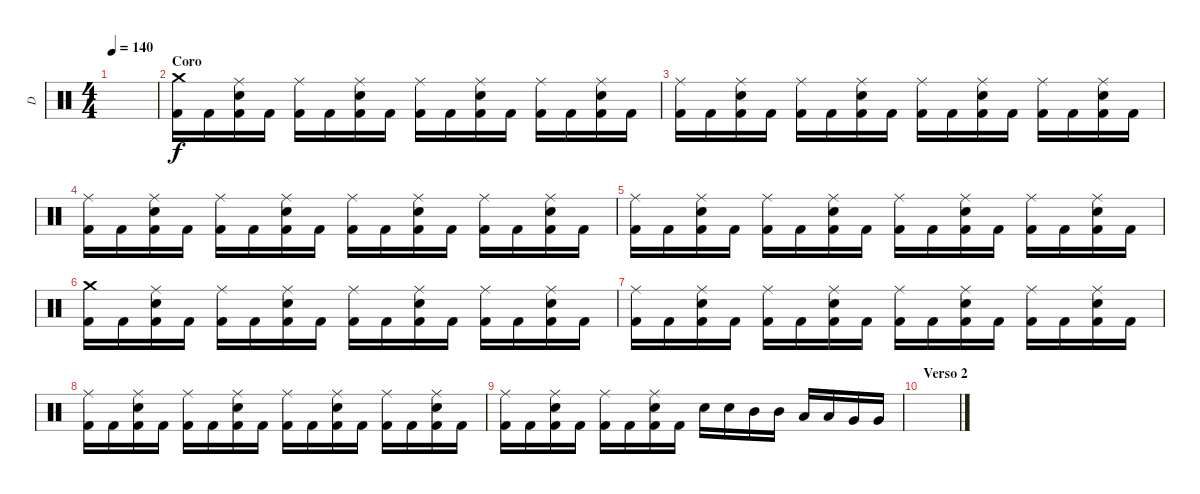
\track ("D" "D") {instrument percussion}
\staff {score}
\articulation defaults
\ts (4 4)
\tempo 140
\clef neutral
\ks c
|
\section ("" "Coro")
("Crash medium (hit)" "Kick (hit) 2").16 "Kick (hit) 2".16 ("Ride (middle)" "Electric Snare (hit)" "Kick (hit) 2").16 "Kick (hit) 2".16 ("Ride (middle)" "Kick (hit) 2").16 "Kick (hit) 2".16 ("Ride (middle)" "Electric Snare (hit)" "Kick (hit) 2").16 "Kick (hit) 2".16 ("Ride (middle)" "Kick (hit) 2").16 "Kick (hit) 2".16 ("Ride (middle)" "Electric Snare (hit)" "Kick (hit) 2").16 "Kick (hit) 2".16 ("Ride (middle)" "Kick (hit) 2").16 "Kick (hit) 2".16 ("Ride (middle)" "Electric Snare (hit)" "Kick (hit) 2").16 "Kick (hit) 2".16 |
("Ride (middle)" "Kick (hit) 2").16 "Kick (hit) 2".16 ("Ride (middle)" "Electric Snare (hit)" "Kick (hit) 2").16 "Kick (hit) 2".16 ("Ride (middle)" "Kick (hit) 2").16 "Kick (hit) 2".16 ("Ride (middle)" "Electric Snare (hit)" "Kick (hit) 2").16 "Kick (hit) 2".16 ("Ride (middle)" "Kick (hit) 2").16 "Kick (hit) 2".16 ("Ride (middle)" "Electric Snare (hit)" "Kick (hit) 2").16 "Kick (hit) 2".16 ("Ride (middle)" "Kick (hit) 2").16 "Kick (hit) 2".16 ("Ride (middle)" "Electric Snare (hit)" "Kick (hit) 2").16 "Kick (hit) 2".16 |
("Ride (middle)" "Kick (hit) 2").16 "Kick (hit) 2".16 ("Ride (middle)" "Electric Snare (hit)" "Kick (hit) 2").16 "Kick (hit) 2".16 ("Ride (middle)" "Kick (hit) 2").16 "Kick (hit) 2".16 ("Ride (middle)" "Electric Snare (hit)" "Kick (hit) 2").16 "Kick (hit) 2".16 ("Ride (middle)" "Kick (hit) 2").16 "Kick (hit) 2".16 ("Ride (middle)" "Electric Snare (hit)" "Kick (hit) 2").16 "Kick (hit) 2".16 ("Ride (middle)" "Kick (hit) 2").16 "Kick (hit) 2".16 ("Ride (middle)" "Electric Snare (hit)" "Kick (hit) 2").16 "Kick (hit) 2".16 |
("Ride (middle)" "Kick (hit) 2").16 "Kick (hit) 2".16 ("Ride (middle)" "Electric Snare (hit)" "Kick (hit) 2").16 "Kick (hit) 2".16 ("Ride (middle)" "Kick (hit) 2").16 "Kick (hit) 2".16 ("Ride (middle)" "Electric Snare (hit)" "Kick (hit) 2").16 "Kick (hit) 2".16 ("Ride (middle)" "Kick (hit) 2").16 "Kick (hit) 2".16 ("Ride (middle)" "Electric Snare (hit)" "Kick (hit) 2").16 "Kick (hit) 2".16 ("Ride (middle)" "Kick (hit) 2").16 "Kick (hit) 2".16 ("Ride (middle)" "Electric Snare (hit)" "Kick (hit) 2").16 "Kick (hit) 2".16 |
("Crash medium (hit)" "Kick (hit) 2").16 "Kick (hit) 2".16 ("Ride (middle)" "Electric Snare (hit)" "Kick (hit) 2").16 "Kick (hit) 2".16 ("Ride (middle)" "Kick (hit) 2").16 "Kick (hit) 2".16 ("Ride (middle)" "Electric Snare (hit)" "Kick (hit) 2").16 "Kick (hit) 2".16 ("Ride (middle)" "Kick (hit) 2").16 "Kick (hit) 2".16 ("Ride (middle)" "Electric Snare (hit)" "Kick (hit) 2").16 "Kick (hit) 2".16 ("Ride (middle)" "Kick (hit) 2").16 "Kick (hit) 2".16 ("Ride (middle)" "Electric Snare (hit)" "Kick (hit) 2").16 "Kick (hit) 2".16 |
("Ride (middle)" "Kick (hit) 2").16 "Kick (hit) 2".16 ("Ride (middle)" "Electric Snare (hit)" "Kick (hit) 2").16 "Kick (hit) 2".16 ("Ride (middle)" "Kick (hit) 2").16 "Kick (hit) 2".16 ("Ride (middle)" "Electric Snare (hit)" "Kick (hit) 2").16 "Kick (hit) 2".16 ("Ride (middle)" "Kick (hit) 2").16 "Kick (hit) 2".16 ("Ride (middle)" "Electric Snare (hit)" "Kick (hit) 2").16 "Kick (hit) 2".16 ("Ride (middle)" "Kick (hit) 2").16 "Kick (hit) 2".16 ("Ride (middle)" "Electric Snare (hit)" "Kick (hit) 2").16 "Kick (hit) 2".16 |
("Ride (middle)" "Kick (hit) 2").16 "Kick (hit) 2".16 ("Ride (middle)" "Electric Snare (hit)" "Kick (hit) 2").16 "Kick (hit) 2".16 ("Ride (middle)" "Kick (hit) 2").16 "Kick (hit) 2".16 ("Ride (middle)" "Electric Snare (hit)" "Kick (hit) 2").16 "Kick (hit) 2".16 ("Ride (middle)" "Kick (hit) 2").16 "Kick (hit) 2".16 ("Ride (middle)" "Electric Snare (hit)" "Kick (hit) 2").16 "Kick (hit) 2".16 ("Ride (middle)" "Kick (hit) 2").16 "Kick (hit) 2".16 ("Ride (middle)" "Electric Snare (hit)" "Kick (hit) 2").16 "Kick (hit) 2".16 |
("Ride (middle)" "Kick (hit) 2").16 "Kick (hit) 2".16 ("Ride (middle)" "Electric Snare (hit)" "Kick (hit) 2").16 "Kick (hit) 2".16 ("Ride (middle)" "Kick (hit) 2").16 "Kick (hit) 2".16 ("Ride (middle)" "Electric Snare (hit)" "Kick (hit) 2").16 "Kick (hit) 2".16 "Electric Snare (hit)".16 "Electric Snare (hit)".16 "Mid Tom (hit)".16 "Mid Tom (hit)".16 "Low Tom (hit)".16 "Low Tom (hit)".16 "Very Low Tom (hit)".16 "Very Low Tom (hit)".16 |
\section ("" "Verso 2")
